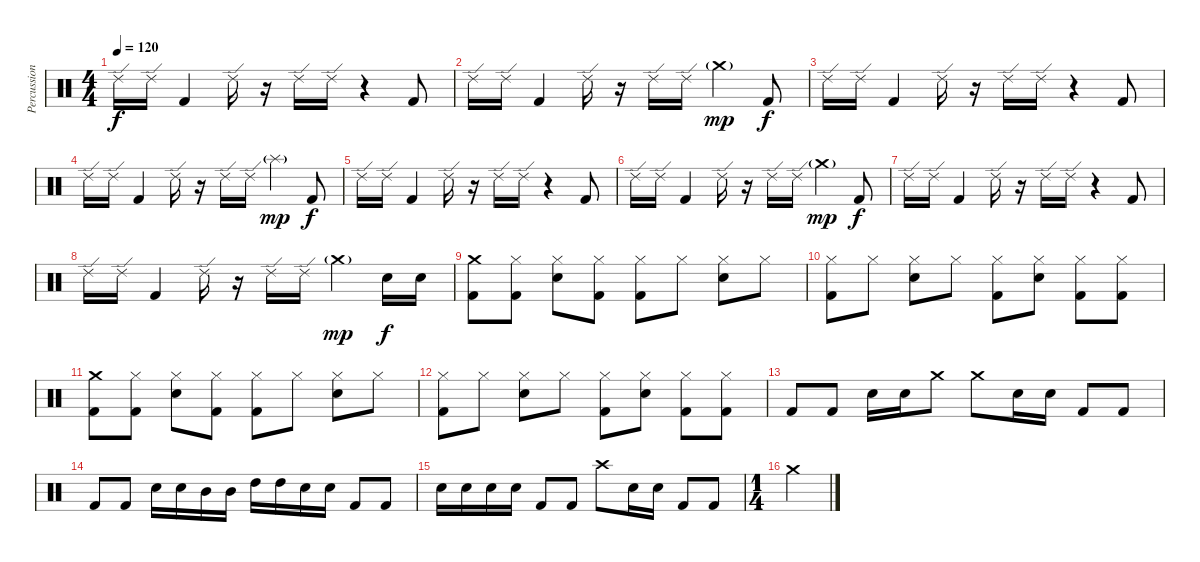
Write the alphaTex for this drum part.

\track ("Percussioni" "Percussion") {instrument percussion}
\staff {score}
\articulation defaults
\ts (4 4)
\tempo 120
\clef neutral
\ks c "Ride (edge) 2".16{dy f} "Ride (edge) 2".16 "Kick (hit) 2".4 "Ride (edge) 2".16
r.16 "Ride (edge) 2".16 "Ride (edge) 2".16 r.4 "Kick (hit) 2".8 |
"Ride (edge) 2".16 "Ride (edge) 2".16 "Kick (hit) 2".4 "Ride (edge) 2".16 r.16 "Ride (edge) 2".16 "Ride (edge) 2".16 "Crash medium (hit)"{g}.4{dy mp} "Kick (hit) 2".8{dy f} |
"Ride (edge) 2".16 "Ride (edge) 2".16 "Kick (hit) 2".4 "Ride (edge) 2".16 r.16 "Ride (edge) 2".16 "Ride (edge) 2".16 r.4 "Kick (hit) 2".8 |
"Ride (edge) 2".16 "Ride (edge) 2".16 "Kick (hit) 2".4 "Ride (edge) 2".16 r.16 "Ride (edge) 2".16 "Ride (edge) 2".16 "Splash (hit)"{g}.4{dy mp} "Kick (hit) 2".8{dy f} |
"Ride (edge) 2".16 "Ride (edge) 2".16 "Kick (hit) 2".4 "Ride (edge) 2".16 r.16 "Ride (edge) 2".16 "Ride (edge) 2".16 r.4 "Kick (hit) 2".8 |
"Ride (edge) 2".16 "Ride (edge) 2".16 "Kick (hit) 2".4 "Ride (edge) 2".16 r.16 "Ride (edge) 2".16 "Ride (edge) 2".16 "Crash medium (hit)"{g}.4{dy mp} "Kick (hit) 2".8{dy f} |
"Ride (edge) 2".16 "Ride (edge) 2".16 "Kick (hit) 2".4 "Ride (edge) 2".16 r.16 "Ride (edge) 2".16 "Ride (edge) 2".16 r.4 "Kick (hit) 2".8 |
"Ride (edge) 2".16 "Ride (edge) 2".16 "Kick (hit) 2".4 "Ride (edge) 2".16 r.16 "Ride (edge) 2".16 "Ride (edge) 2".16 "Crash medium (hit)"{g}.4{dy mp} "Electric Snare (hit)".16{dy f} "Electric Snare (hit)".16 |
("Crash medium (hit)" "Kick (hit) 2").8 ("Hi-Hat (closed)" "Kick (hit) 2").8 ("Hi-Hat (closed)" "Electric Snare (hit)").8 ("Hi-Hat (closed)" "Kick (hit) 2").8 ("Hi-Hat (closed)" "Kick (hit) 2").8 "Hi-Hat (closed)".8 ("Hi-Hat (closed)" "Electric Snare (hit)").8 "Hi-Hat (closed)".8 |
("Hi-Hat (closed)" "Kick (hit) 2").8 "Hi-Hat (closed)".8 ("Hi-Hat (closed)" "Electric Snare (hit)").8 "Hi-Hat (closed)".8 ("Hi-Hat (closed)" "Kick (hit) 2").8 ("Hi-Hat (closed)" "Electric Snare (hit)").8 ("Hi-Hat (closed)" "Kick (hit) 2").8 ("Hi-Hat (closed)" "Kick (hit) 2").8 |
("Crash medium (hit)" "Kick (hit) 2").8 ("Hi-Hat (closed)" "Kick (hit) 2").8 ("Hi-Hat (closed)" "Electric Snare (hit)").8 ("Hi-Hat (closed)" "Kick (hit) 2").8 ("Hi-Hat (closed)" "Kick (hit) 2").8 "Hi-Hat (closed)".8 ("Hi-Hat (closed)" "Electric Snare (hit)").8 "Hi-Hat (closed)".8 |
("Hi-Hat (closed)" "Kick (hit) 2").8 "Hi-Hat (closed)".8 ("Hi-Hat (closed)" "Electric Snare (hit)").8 "Hi-Hat (closed)".8 ("Hi-Hat (closed)" "Kick (hit) 2").8 ("Hi-Hat (closed)" "Electric Snare (hit)").8 ("Hi-Hat (closed)" "Kick (hit) 2").8 ("Hi-Hat (closed)" "Kick (hit) 2").8 |
"Kick (hit) 2".8 "Kick (hit) 2".8 "Electric Snare (hit)".16 "Electric Snare (hit)".16 "Crash medium (hit)".8 "Crash medium (hit)".8 "Electric Snare (hit)".16 "Electric Snare (hit)".16 "Kick (hit) 2".8 "Kick (hit) 2".8 |
"Kick (hit) 2".8 "Kick (hit) 2".8 "Electric Snare (hit)".16 "Electric Snare (hit)".16 "Mid Tom (hit)".16 "Mid Tom (hit)".16 "High Tom (hit)".16 "High Tom (hit)".16 "Electric Snare (hit)".16 "Electric Snare (hit)".16 "Kick (hit) 2".8 "Kick (hit) 2".8 |
"Electric Snare (hit)".16 "Electric Snare (hit)".16 "Electric Snare (hit)".16 "Electric Snare (hit)".16 "Kick (hit) 2".8 "Kick (hit) 2".8 "Crash high (hit)".8 "Electric Snare (hit)".16 "Electric Snare (hit)".16 "Kick (hit) 2".8 "Kick (hit) 2".8 |
\ts (1 4)
"Crash medium (hit)".4
